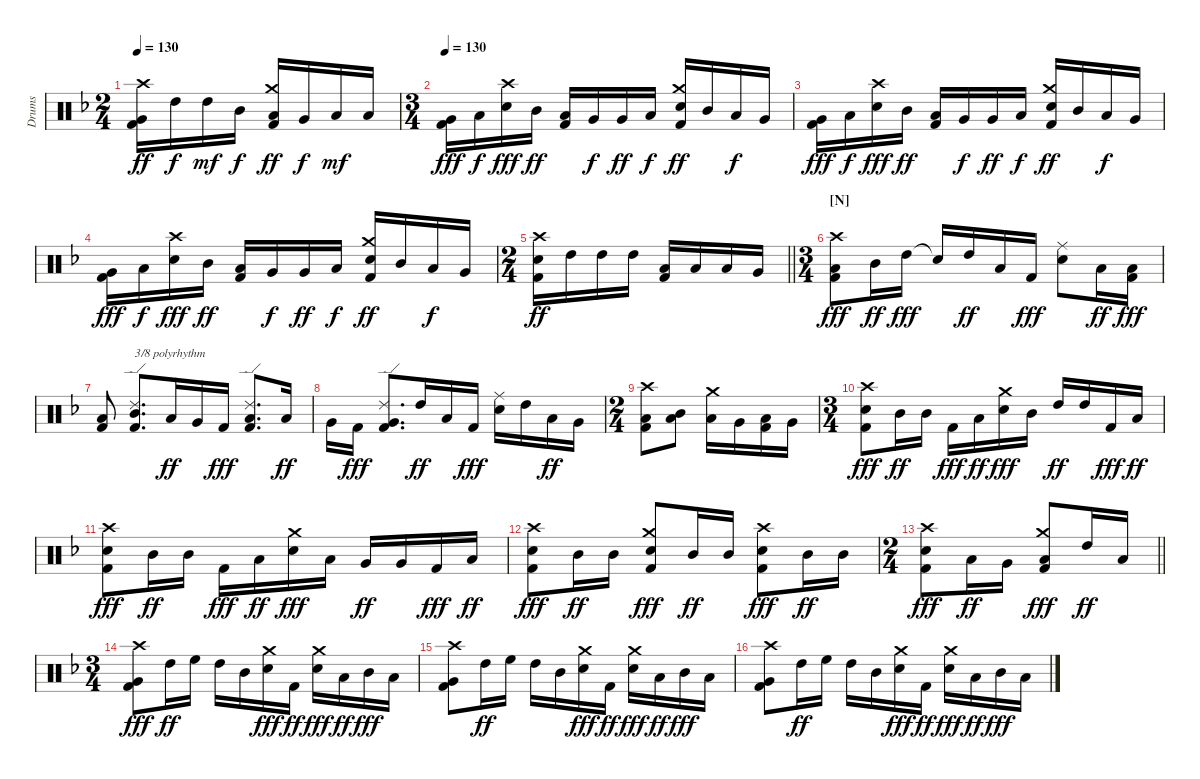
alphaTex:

\track ("Drums" "Drums") {instrument percussion}
\staff {score}
\articulation defaults
\ts (2 4)
\tempo 130
\clef neutral
\ks dminor
("Crash high (hit)" "Very Low Tom (hit)" "Kick (hit) 2").16{dy ff} "High Tom (hit)".16{dy f} "High Tom (hit)".16{dy mf} "Mid Tom (hit)".16{dy f} ("Crash medium (hit)" "Low Tom (hit)" "Kick (hit) 2").16{dy ff} "Very Low Tom (hit)".16{dy f} "Low Floor Tom (hit)".16{dy mf} "Low Floor Tom (hit)".16 |
\ts (3 4)
\tempo 130
("Very Low Tom (hit)" "Kick (hit) 2").16{dy fff} "Low Floor Tom (hit)".16{dy f} ("Crash high (hit)" "Snare (hit) 2").16{dy fff} "Mid Tom (hit)".16{dy ff} ("Low Tom (hit)" "Kick (hit) 2").16 "Very Low Tom (hit)".16{dy f} "Very Low Tom (hit)".16{dy ff} "Low Floor Tom (hit)".16{dy f} ("Crash medium (hit)" "Snare (hit) 2" "Kick (hit) 2").16{dy ff} "Mid Tom (hit)".16 "Low Tom (hit)".16{dy f} "Very Low Tom (hit)".16 |
("Very Low Tom (hit)" "Kick (hit) 2").16{dy fff} "Low Floor Tom (hit)".16{dy f} ("Crash high (hit)" "Snare (hit) 2").16{dy fff} "Mid Tom (hit)".16{dy ff} ("Low Tom (hit)" "Kick (hit) 2").16 "Very Low Tom (hit)".16{dy f} "Very Low Tom (hit)".16{dy ff} "Low Floor Tom (hit)".16{dy f} ("Crash medium (hit)" "Snare (hit) 2" "Kick (hit) 2").16{dy ff} "Mid Tom (hit)".16 "Low Tom (hit)".16{dy f} "Very Low Tom (hit)".16 |
("Very Low Tom (hit)" "Kick (hit) 2").16{dy fff} "Low Floor Tom (hit)".16{dy f} ("Crash high (hit)" "Snare (hit) 2").16{dy fff} "Mid Tom (hit)".16{dy ff} ("Low Tom (hit)" "Kick (hit) 2").16 "Very Low Tom (hit)".16{dy f} "Very Low Tom (hit)".16{dy ff} "Low Floor Tom (hit)".16{dy f} ("Crash medium (hit)" "Snare (hit) 2" "Kick (hit) 2").16{dy ff} "Mid Tom (hit)".16 "Low Tom (hit)".16{dy f} "Very Low Tom (hit)".16 |
\ts (2 4)
\barLineRight lightlight
("Crash high (hit)" "Snare (hit) 2" "Kick (hit) 2").16{dy ff} "High Tom (hit)".16 "High Tom (hit)".16 "High Tom (hit)".16 ("Low Tom (hit)" "Kick (hit) 2").16 "Low Tom (hit)".16 "Low Tom (hit)".16 "Very Low Tom (hit)".16 |
\ts (3 4)
\section ("" "[N]")
("Crash high (hit)" "Low Tom (hit)" "Kick (hit) 2").8{dy fff} "Mid Tom (hit)".16{dy ff} "High Tom (hit)".16{dy fff} "Snare (hit)"{t}.16 "High Tom (hit)".16{dy ff} "Low Tom (hit)".16 "Kick (hit) 2".16{dy fff} ("Ride (middle)" "Snare (hit) 2").8 "Low Tom (hit)".16{dy ff} ("Low Floor Tom (hit)" "Kick (hit) 2").16{dy fff} |
("Low Tom (hit)" "Kick (hit) 2").8{beam split} ("Ride (edge) 2" "Mid Tom (hit)" "Kick (hit) 2").8{d txt "3/8 polyrhythm" beam merge} "Low Tom (hit)".16{dy ff} "Very Low Tom (hit)".16 "Kick (hit) 2".16{dy fff} ("Ride (edge) 2" "Low Tom (hit)" "Kick (hit) 2").8{d} "Low Tom (hit)".16{dy ff} |
"Very Low Tom (hit)".16{beam Down} "Kick (hit) 2".16{dy fff beam Down beam split} ("Ride (edge) 2" "Very Low Tom (hit)" "Kick (hit) 2").8{d beam merge} "High Tom (hit)".16{dy ff} "Low Tom (hit)".16 "Kick (hit) 2".16{dy fff} ("Ride (middle)" "Snare (hit) 2").16 "High Tom (hit)".16 "Low Tom (hit)".16{dy ff} "Very Low Tom (hit)".16 |
\ts (2 4)
("Crash high (hit)" "Low Tom (hit)" "Kick (hit) 2").8 ("Mid Tom (hit)" "Low Tom (hit)").8 ("Crash medium (hit)" "Low Tom (hit)").16 "Very Low Tom (hit)".16 ("Low Floor Tom (hit)" "Kick (hit) 2").16 "Very Low Tom (hit)".16 |
\ts (3 4)
("Crash high (hit)" "Snare (hit) 2" "Kick (hit) 2").8{dy fff} "Mid Tom (hit)".16{dy ff} "Mid Tom (hit)".16 "Kick (hit) 2".16{dy fff} "Low Tom (hit)".16{dy ff} ("Crash medium (hit)" "Snare (hit) 2").16{dy fff} "Mid Tom (hit)".16 "High Tom (hit)".16{dy ff} "High Tom (hit)".16 "Kick (hit) 2".16{dy fff} "Low Tom (hit)".16{dy ff} |
("Crash high (hit)" "Snare (hit) 2" "Kick (hit) 2").8{dy fff} "Mid Tom (hit)".16{dy ff} "Mid Tom (hit)".16 "Kick (hit) 2".16{dy fff} "Low Tom (hit)".16{dy ff} ("Crash medium (hit)" "Snare (hit) 2").16{dy fff} "Low Tom (hit)".16 "Very Low Tom (hit)".16{dy ff} "Very Low Tom (hit)".16 "Kick (hit) 2".16{dy fff} "Low Tom (hit)".16{dy ff} |
("Crash high (hit)" "Snare (hit) 2" "Kick (hit) 2").8{dy fff} "Mid Tom (hit)".16{dy ff} "Mid Tom (hit)".16 ("Crash medium (hit)" "Snare (hit) 2" "Kick (hit) 2").8{dy fff} "Mid Tom (hit)".16{dy ff} "Mid Tom (hit)".16 ("Crash high (hit)" "Snare (hit) 2" "Kick (hit) 2").8{dy fff} "Mid Tom (hit)".16{dy ff} "Mid Tom (hit)".16 |
\ts (2 4)
\barLineRight lightlight
("Crash high (hit)" "Snare (hit) 2" "Kick (hit) 2").8{dy fff} "Low Tom (hit)".16{dy ff} "Very Low Tom (hit)".16 ("Crash medium (hit)" "Low Floor Tom (hit)" "Kick (hit) 2").8{dy fff} "High Tom (hit)".16{dy ff} "Low Tom (hit)".16 |
\ts (3 4)
("Crash high (hit)" "Very Low Tom (hit)" "Kick (hit) 2").8{dy fff} "High Tom (hit)".16{dy ff} "High Floor Tom (hit)".16 "High Tom (hit)".16 "Mid Tom (hit)".16 ("Crash medium (hit)" "Snare (hit) 2").16{dy fff} "Kick (hit) 2".16{dy ff} ("Crash medium (hit)" "Snare (hit) 2").16{dy fff} "Low Tom (hit)".16{dy ff} "Mid Tom (hit)".16{dy fff} "Low Tom (hit)".16 |
("Crash high (hit)" "Very Low Tom (hit)" "Kick (hit) 2").8 "High Tom (hit)".16{dy ff} "High Floor Tom (hit)".16 "High Tom (hit)".16 "Mid Tom (hit)".16 ("Crash medium (hit)" "Snare (hit) 2").16{dy fff} "Kick (hit) 2".16{dy ff} ("Crash medium (hit)" "Snare (hit) 2").16{dy fff} "Low Tom (hit)".16{dy ff} "Mid Tom (hit)".16{dy fff} "Low Tom (hit)".16 |
("Crash high (hit)" "Very Low Tom (hit)" "Kick (hit) 2").8 "High Tom (hit)".16{dy ff} "High Floor Tom (hit)".16 "High Tom (hit)".16 "Mid Tom (hit)".16 ("Crash medium (hit)" "Snare (hit) 2").16{dy fff} "Kick (hit) 2".16{dy ff} ("Crash medium (hit)" "Snare (hit) 2").16{dy fff} "Low Tom (hit)".16{dy ff} "Mid Tom (hit)".16{dy fff} "Low Tom (hit)".16
